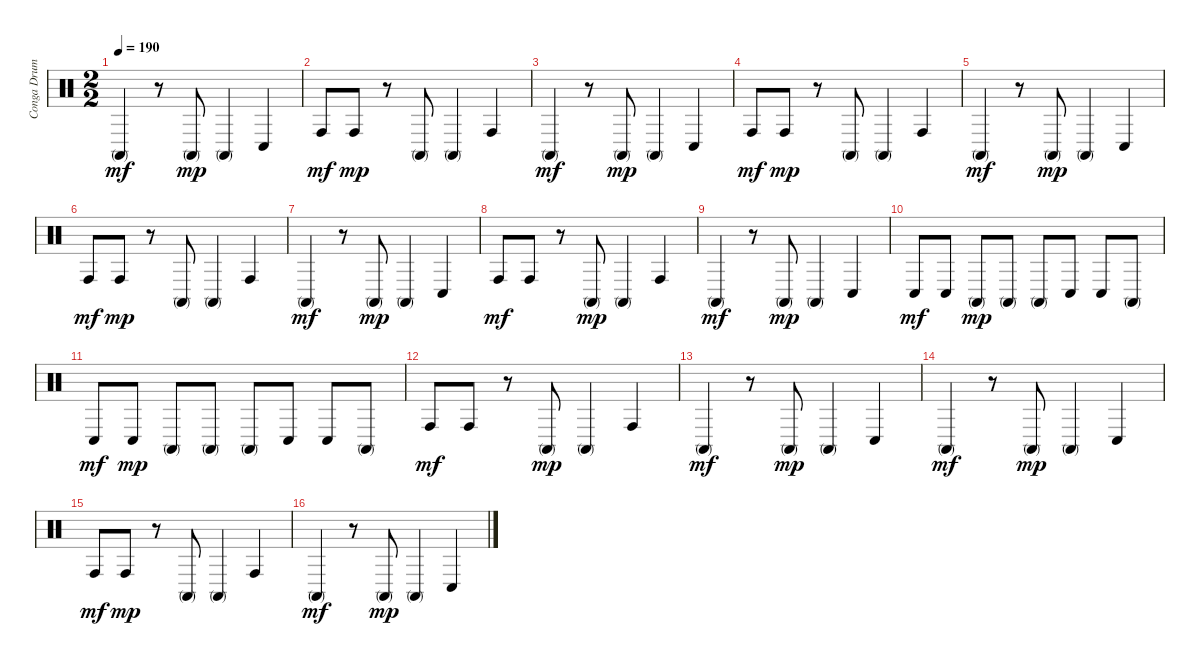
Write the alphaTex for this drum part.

\track ("Conga Drums" "Conga Drum") {instrument percussion}
\staff {score}
\articulation defaults
\ts (2 2)
\tempo 190
\clef neutral
\ks c "Conga high (mute)".4{dy mf}
r.8 "Conga high (mute)".8{dy mp} "Conga high (mute)".4 "Conga low (hit)".4 |
"Conga high (hit)".8{dy mf} "Conga high (hit)".8{dy mp} r.8 "Conga high (mute)".8 "Conga high (mute)".4 "Conga high (hit)".4 |
"Conga high (mute)".4{dy mf} r.8 "Conga high (mute)".8{dy mp} "Conga high (mute)".4 "Conga low (hit)".4 |
"Conga high (hit)".8{dy mf} "Conga high (hit)".8{dy mp} r.8 "Conga high (mute)".8 "Conga high (mute)".4 "Conga high (hit)".4 |
"Conga high (mute)".4{dy mf} r.8 "Conga high (mute)".8{dy mp} "Conga high (mute)".4 "Conga low (hit)".4 |
"Conga high (hit)".8{dy mf} "Conga high (hit)".8{dy mp} r.8 "Conga high (mute)".8 "Conga high (mute)".4 "Conga high (hit)".4 |
"Conga high (mute)".4{dy mf} r.8 "Conga high (mute)".8{dy mp} "Conga high (mute)".4 "Conga low (hit)".4 |
"Conga high (hit)".8{dy mf} "Conga high (hit)".8 r.8 "Conga high (mute)".8{dy mp} "Conga high (mute)".4 "Conga high (hit)".4 |
"Conga high (mute)".4{dy mf} r.8 "Conga high (mute)".8{dy mp} "Conga high (mute)".4 "Conga low (hit)".4 |
"Conga low (hit)".8{dy mf} "Conga low (hit)".8 "Conga high (mute)".8{dy mp} "Conga high (mute)".8 "Conga high (mute)".8 "Conga low (hit)".8 "Conga low (hit)".8 "Conga high (mute)".8 |
"Conga low (hit)".8{dy mf} "Conga low (hit)".8{dy mp} "Conga high (mute)".8 "Conga high (mute)".8 "Conga high (mute)".8 "Conga low (hit)".8 "Conga low (hit)".8 "Conga high (mute)".8 |
"Conga high (hit)".8{dy mf} "Conga high (hit)".8 r.8 "Conga high (mute)".8{dy mp} "Conga high (mute)".4 "Conga high (hit)".4 |
"Conga high (mute)".4{dy mf} r.8 "Conga high (mute)".8{dy mp} "Conga high (mute)".4 "Conga low (hit)".4 |
"Conga high (mute)".4{dy mf} r.8 "Conga high (mute)".8{dy mp} "Conga high (mute)".4 "Conga low (hit)".4 |
"Conga high (hit)".8{dy mf} "Conga high (hit)".8{dy mp} r.8 "Conga high (mute)".8 "Conga high (mute)".4 "Conga high (hit)".4 |
"Conga high (mute)".4{dy mf} r.8 "Conga high (mute)".8{dy mp} "Conga high (mute)".4 "Conga low (hit)".4
